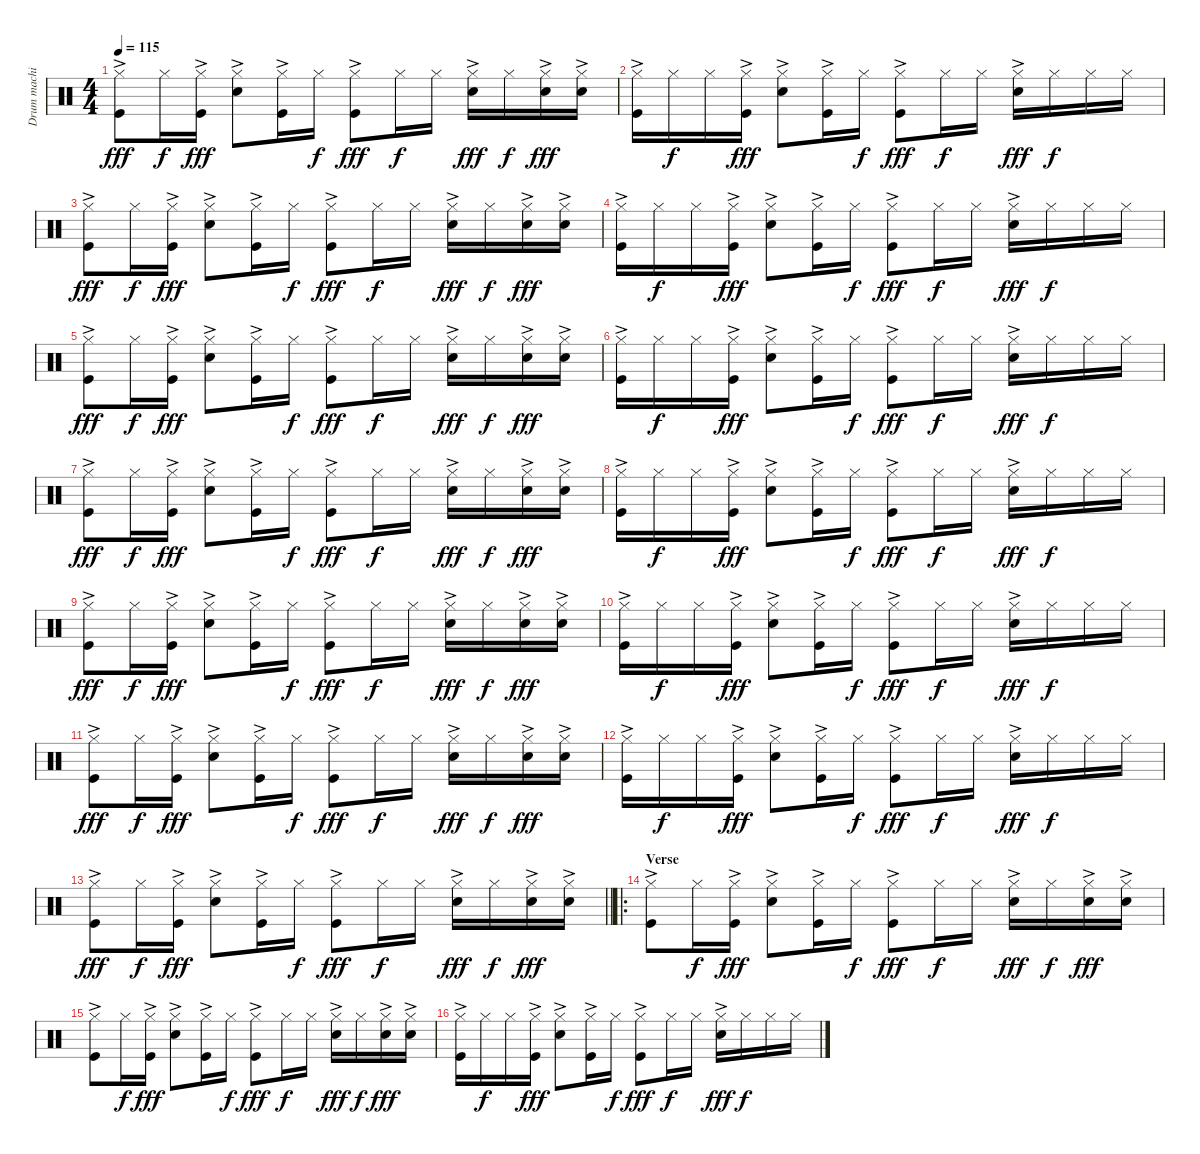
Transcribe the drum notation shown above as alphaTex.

\track ("Drum machine" "Drum machi") {instrument percussion}
\staff {score}
\articulation defaults
\ts (4 4)
\tempo 115
\clef neutral
\ks c
("Hi-Hat (closed)" "Kick (hit)"{ac}).8{dy fff} "Hi-Hat (closed)".16{dy f} ("Hi-Hat (closed)" "Kick (hit)"{ac}).16{dy fff} ("Hi-Hat (closed)" "Snare (hit) 2"{ac}).8 ("Hi-Hat (closed)" "Kick (hit)"{ac}).16 "Hi-Hat (closed)".16{dy f} ("Hi-Hat (closed)" "Kick (hit)"{ac}).8{dy fff} "Hi-Hat (closed)".16{dy f} "Hi-Hat (closed)".16 ("Hi-Hat (closed)" "Snare (hit) 2"{ac}).16{dy fff} "Hi-Hat (closed)".16{dy f} ("Hi-Hat (closed)" "Snare (hit) 2"{ac}).16{dy fff} ("Hi-Hat (closed)" "Snare (hit) 2"{ac}).16 |
("Hi-Hat (closed)" "Kick (hit)"{ac}).16 "Hi-Hat (closed)".16{dy f} "Hi-Hat (closed)".16 ("Hi-Hat (closed)" "Kick (hit)"{ac}).16{dy fff} ("Hi-Hat (closed)" "Snare (hit) 2"{ac}).8 ("Hi-Hat (closed)" "Kick (hit)"{ac}).16 "Hi-Hat (closed)".16{dy f} ("Hi-Hat (closed)" "Kick (hit)"{ac}).8{dy fff} "Hi-Hat (closed)".16{dy f} "Hi-Hat (closed)".16 ("Hi-Hat (closed)" "Snare (hit) 2"{ac}).16{dy fff} "Hi-Hat (closed)".16{dy f} "Hi-Hat (closed)".16 "Hi-Hat (closed)".16 |
("Hi-Hat (closed)" "Kick (hit)"{ac}).8{dy fff} "Hi-Hat (closed)".16{dy f} ("Hi-Hat (closed)" "Kick (hit)"{ac}).16{dy fff} ("Hi-Hat (closed)" "Snare (hit) 2"{ac}).8 ("Hi-Hat (closed)" "Kick (hit)"{ac}).16 "Hi-Hat (closed)".16{dy f} ("Hi-Hat (closed)" "Kick (hit)"{ac}).8{dy fff} "Hi-Hat (closed)".16{dy f} "Hi-Hat (closed)".16 ("Hi-Hat (closed)" "Snare (hit) 2"{ac}).16{dy fff} "Hi-Hat (closed)".16{dy f} ("Hi-Hat (closed)" "Snare (hit) 2"{ac}).16{dy fff} ("Hi-Hat (closed)" "Snare (hit) 2"{ac}).16 |
("Hi-Hat (closed)" "Kick (hit)"{ac}).16 "Hi-Hat (closed)".16{dy f} "Hi-Hat (closed)".16 ("Hi-Hat (closed)" "Kick (hit)"{ac}).16{dy fff} ("Hi-Hat (closed)" "Snare (hit) 2"{ac}).8 ("Hi-Hat (closed)" "Kick (hit)"{ac}).16 "Hi-Hat (closed)".16{dy f} ("Hi-Hat (closed)" "Kick (hit)"{ac}).8{dy fff} "Hi-Hat (closed)".16{dy f} "Hi-Hat (closed)".16 ("Hi-Hat (closed)" "Snare (hit) 2"{ac}).16{dy fff} "Hi-Hat (closed)".16{dy f} "Hi-Hat (closed)".16 "Hi-Hat (closed)".16 |
("Hi-Hat (closed)" "Kick (hit)"{ac}).8{dy fff} "Hi-Hat (closed)".16{dy f} ("Hi-Hat (closed)" "Kick (hit)"{ac}).16{dy fff} ("Hi-Hat (closed)" "Snare (hit) 2"{ac}).8 ("Hi-Hat (closed)" "Kick (hit)"{ac}).16 "Hi-Hat (closed)".16{dy f} ("Hi-Hat (closed)" "Kick (hit)"{ac}).8{dy fff} "Hi-Hat (closed)".16{dy f} "Hi-Hat (closed)".16 ("Hi-Hat (closed)" "Snare (hit) 2"{ac}).16{dy fff} "Hi-Hat (closed)".16{dy f} ("Hi-Hat (closed)" "Snare (hit) 2"{ac}).16{dy fff} ("Hi-Hat (closed)" "Snare (hit) 2"{ac}).16 |
("Hi-Hat (closed)" "Kick (hit)"{ac}).16 "Hi-Hat (closed)".16{dy f} "Hi-Hat (closed)".16 ("Hi-Hat (closed)" "Kick (hit)"{ac}).16{dy fff} ("Hi-Hat (closed)" "Snare (hit) 2"{ac}).8 ("Hi-Hat (closed)" "Kick (hit)"{ac}).16 "Hi-Hat (closed)".16{dy f} ("Hi-Hat (closed)" "Kick (hit)"{ac}).8{dy fff} "Hi-Hat (closed)".16{dy f} "Hi-Hat (closed)".16 ("Hi-Hat (closed)" "Snare (hit) 2"{ac}).16{dy fff} "Hi-Hat (closed)".16{dy f} "Hi-Hat (closed)".16 "Hi-Hat (closed)".16 |
("Hi-Hat (closed)" "Kick (hit)"{ac}).8{dy fff} "Hi-Hat (closed)".16{dy f} ("Hi-Hat (closed)" "Kick (hit)"{ac}).16{dy fff} ("Hi-Hat (closed)" "Snare (hit) 2"{ac}).8 ("Hi-Hat (closed)" "Kick (hit)"{ac}).16 "Hi-Hat (closed)".16{dy f} ("Hi-Hat (closed)" "Kick (hit)"{ac}).8{dy fff} "Hi-Hat (closed)".16{dy f} "Hi-Hat (closed)".16 ("Hi-Hat (closed)" "Snare (hit) 2"{ac}).16{dy fff} "Hi-Hat (closed)".16{dy f} ("Hi-Hat (closed)" "Snare (hit) 2"{ac}).16{dy fff} ("Hi-Hat (closed)" "Snare (hit) 2"{ac}).16 |
("Hi-Hat (closed)" "Kick (hit)"{ac}).16 "Hi-Hat (closed)".16{dy f} "Hi-Hat (closed)".16 ("Hi-Hat (closed)" "Kick (hit)"{ac}).16{dy fff} ("Hi-Hat (closed)" "Snare (hit) 2"{ac}).8 ("Hi-Hat (closed)" "Kick (hit)"{ac}).16 "Hi-Hat (closed)".16{dy f} ("Hi-Hat (closed)" "Kick (hit)"{ac}).8{dy fff} "Hi-Hat (closed)".16{dy f} "Hi-Hat (closed)".16 ("Hi-Hat (closed)" "Snare (hit) 2"{ac}).16{dy fff} "Hi-Hat (closed)".16{dy f} "Hi-Hat (closed)".16 "Hi-Hat (closed)".16 |
("Hi-Hat (closed)" "Kick (hit)"{ac}).8{dy fff} "Hi-Hat (closed)".16{dy f} ("Hi-Hat (closed)" "Kick (hit)"{ac}).16{dy fff} ("Hi-Hat (closed)" "Snare (hit) 2"{ac}).8 ("Hi-Hat (closed)" "Kick (hit)"{ac}).16 "Hi-Hat (closed)".16{dy f} ("Hi-Hat (closed)" "Kick (hit)"{ac}).8{dy fff} "Hi-Hat (closed)".16{dy f} "Hi-Hat (closed)".16 ("Hi-Hat (closed)" "Snare (hit) 2"{ac}).16{dy fff} "Hi-Hat (closed)".16{dy f} ("Hi-Hat (closed)" "Snare (hit) 2"{ac}).16{dy fff} ("Hi-Hat (closed)" "Snare (hit) 2"{ac}).16 |
("Hi-Hat (closed)" "Kick (hit)"{ac}).16 "Hi-Hat (closed)".16{dy f} "Hi-Hat (closed)".16 ("Hi-Hat (closed)" "Kick (hit)"{ac}).16{dy fff} ("Hi-Hat (closed)" "Snare (hit) 2"{ac}).8 ("Hi-Hat (closed)" "Kick (hit)"{ac}).16 "Hi-Hat (closed)".16{dy f} ("Hi-Hat (closed)" "Kick (hit)"{ac}).8{dy fff} "Hi-Hat (closed)".16{dy f} "Hi-Hat (closed)".16 ("Hi-Hat (closed)" "Snare (hit) 2"{ac}).16{dy fff} "Hi-Hat (closed)".16{dy f} "Hi-Hat (closed)".16 "Hi-Hat (closed)".16 |
("Hi-Hat (closed)" "Kick (hit)"{ac}).8{dy fff} "Hi-Hat (closed)".16{dy f} ("Hi-Hat (closed)" "Kick (hit)"{ac}).16{dy fff} ("Hi-Hat (closed)" "Snare (hit) 2"{ac}).8 ("Hi-Hat (closed)" "Kick (hit)"{ac}).16 "Hi-Hat (closed)".16{dy f} ("Hi-Hat (closed)" "Kick (hit)"{ac}).8{dy fff} "Hi-Hat (closed)".16{dy f} "Hi-Hat (closed)".16 ("Hi-Hat (closed)" "Snare (hit) 2"{ac}).16{dy fff} "Hi-Hat (closed)".16{dy f} ("Hi-Hat (closed)" "Snare (hit) 2"{ac}).16{dy fff} ("Hi-Hat (closed)" "Snare (hit) 2"{ac}).16 |
("Hi-Hat (closed)" "Kick (hit)"{ac}).16 "Hi-Hat (closed)".16{dy f} "Hi-Hat (closed)".16 ("Hi-Hat (closed)" "Kick (hit)"{ac}).16{dy fff} ("Hi-Hat (closed)" "Snare (hit) 2"{ac}).8 ("Hi-Hat (closed)" "Kick (hit)"{ac}).16 "Hi-Hat (closed)".16{dy f} ("Hi-Hat (closed)" "Kick (hit)"{ac}).8{dy fff} "Hi-Hat (closed)".16{dy f} "Hi-Hat (closed)".16 ("Hi-Hat (closed)" "Snare (hit) 2"{ac}).16{dy fff} "Hi-Hat (closed)".16{dy f} "Hi-Hat (closed)".16 "Hi-Hat (closed)".16 |
\barLineRight lightlight
("Hi-Hat (closed)" "Kick (hit)"{ac}).8{dy fff} "Hi-Hat (closed)".16{dy f} ("Hi-Hat (closed)" "Kick (hit)"{ac}).16{dy fff} ("Hi-Hat (closed)" "Snare (hit) 2"{ac}).8 ("Hi-Hat (closed)" "Kick (hit)"{ac}).16 "Hi-Hat (closed)".16{dy f} ("Hi-Hat (closed)" "Kick (hit)"{ac}).8{dy fff} "Hi-Hat (closed)".16{dy f} "Hi-Hat (closed)".16 ("Hi-Hat (closed)" "Snare (hit) 2"{ac}).16{dy fff} "Hi-Hat (closed)".16{dy f} ("Hi-Hat (closed)" "Snare (hit) 2"{ac}).16{dy fff} ("Hi-Hat (closed)" "Snare (hit) 2"{ac}).16 |
\ro
\section ("" "Verse")
("Hi-Hat (closed)" "Kick (hit)"{ac}).8 "Hi-Hat (closed)".16{dy f} ("Hi-Hat (closed)" "Kick (hit)"{ac}).16{dy fff} ("Hi-Hat (closed)" "Snare (hit) 2"{ac}).8 ("Hi-Hat (closed)" "Kick (hit)"{ac}).16 "Hi-Hat (closed)".16{dy f} ("Hi-Hat (closed)" "Kick (hit)"{ac}).8{dy fff} "Hi-Hat (closed)".16{dy f} "Hi-Hat (closed)".16 ("Hi-Hat (closed)" "Snare (hit) 2"{ac}).16{dy fff} "Hi-Hat (closed)".16{dy f} ("Hi-Hat (closed)" "Snare (hit) 2"{ac}).16{dy fff} ("Hi-Hat (closed)" "Snare (hit) 2"{ac}).16 |
("Hi-Hat (closed)" "Kick (hit)"{ac}).8 "Hi-Hat (closed)".16{dy f} ("Hi-Hat (closed)" "Kick (hit)"{ac}).16{dy fff} ("Hi-Hat (closed)" "Snare (hit) 2"{ac}).8 ("Hi-Hat (closed)" "Kick (hit)"{ac}).16 "Hi-Hat (closed)".16{dy f} ("Hi-Hat (closed)" "Kick (hit)"{ac}).8{dy fff} "Hi-Hat (closed)".16{dy f} "Hi-Hat (closed)".16 ("Hi-Hat (closed)" "Snare (hit) 2"{ac}).16{dy fff} "Hi-Hat (closed)".16{dy f} ("Hi-Hat (closed)" "Snare (hit) 2"{ac}).16{dy fff} ("Hi-Hat (closed)" "Snare (hit) 2"{ac}).16 |
("Hi-Hat (closed)" "Kick (hit)"{ac}).16 "Hi-Hat (closed)".16{dy f} "Hi-Hat (closed)".16 ("Hi-Hat (closed)" "Kick (hit)"{ac}).16{dy fff} ("Hi-Hat (closed)" "Snare (hit) 2"{ac}).8 ("Hi-Hat (closed)" "Kick (hit)"{ac}).16 "Hi-Hat (closed)".16{dy f} ("Hi-Hat (closed)" "Kick (hit)"{ac}).8{dy fff} "Hi-Hat (closed)".16{dy f} "Hi-Hat (closed)".16 ("Hi-Hat (closed)" "Snare (hit) 2"{ac}).16{dy fff} "Hi-Hat (closed)".16{dy f} "Hi-Hat (closed)".16 "Hi-Hat (closed)".16
